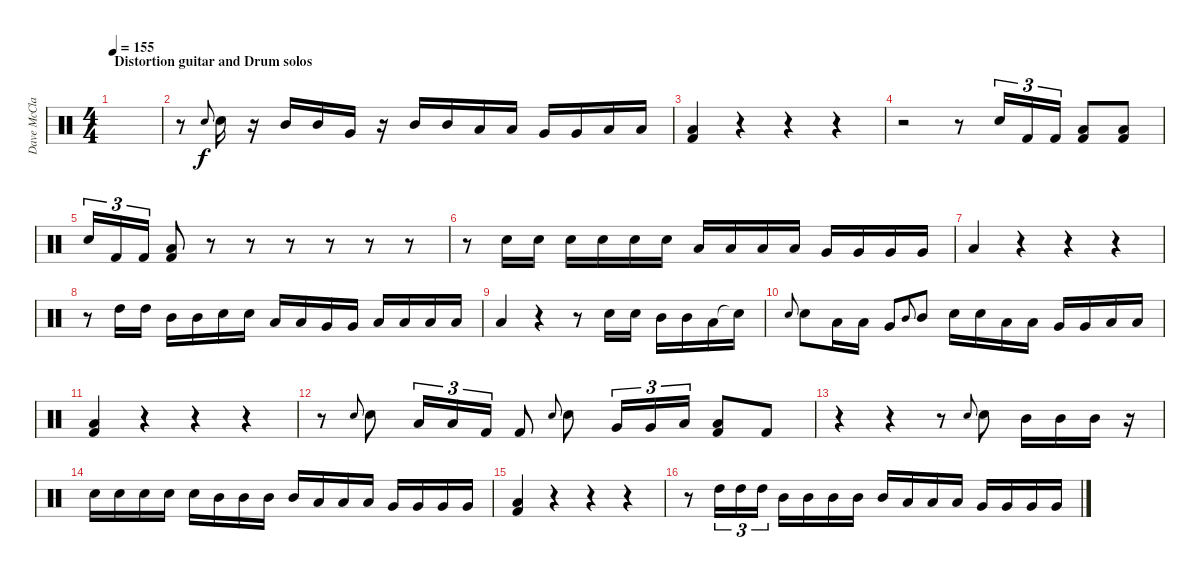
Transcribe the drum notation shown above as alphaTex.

\track ("Dave McClain (Drums)" "Dave McCla") {instrument percussion}
\staff {score}
\articulation defaults
\ts (4 4)
\section ("" "Distortion guitar and Drum solos")
\tempo 155
\clef neutral
\ks c
|
r.8 "Electric Snare (hit)".8{gr onbeat} "Electric Snare (hit)".16 r.16 "Mid Tom (hit)".16 "Mid Tom (hit)".16 "Very Low Tom (hit)".16 r.16 "Mid Tom (hit)".16 "Mid Tom (hit)".16 "Low Tom (hit)".16 "Low Tom (hit)".16 "Very Low Tom (hit)".16 "Very Low Tom (hit)".16 "Low Floor Tom (hit)".16 "Low Floor Tom (hit)".16 |
("Low Floor Tom (hit)" "Kick (hit) 2").4 r.4 r.4 r.4 |
r.2 r.8 "Electric Snare (hit)".16{tu (3 2)} "Kick (hit) 2".16{tu (3 2)} "Kick (hit) 2".16{tu (3 2)} ("Low Floor Tom (hit)" "Kick (hit) 2").8 ("Low Floor Tom (hit)" "Kick (hit) 2").8 |
"Electric Snare (hit)".16{tu (3 2)} "Kick (hit) 2".16{tu (3 2)} "Kick (hit) 2".16{tu (3 2)} ("Low Floor Tom (hit)" "Kick (hit) 2").8 r.8 r.8 r.8 r.8 r.8 r.8 |
r.8 "Electric Snare (hit)".16 "Electric Snare (hit)".16 "Electric Snare (hit)".16 "Electric Snare (hit)".16 "Electric Snare (hit)".16 "Electric Snare (hit)".16 "Low Tom (hit)".16 "Low Tom (hit)".16 "Low Tom (hit)".16 "Low Tom (hit)".16 "Very Low Tom (hit)".16 "Very Low Tom (hit)".16 "Very Low Tom (hit)".16 "Very Low Tom (hit)".16 |
"Low Floor Tom (hit)".4 r.4 r.4 r.4 |
r.8 "High Tom (hit)".16 "High Tom (hit)".16 "Mid Tom (hit)".16 "Mid Tom (hit)".16 "Electric Snare (hit)".16 "Electric Snare (hit)".16 "Low Tom (hit)".16 "Low Tom (hit)".16 "Very Low Tom (hit)".16 "Very Low Tom (hit)".16 "Low Floor Tom (hit)".16 "Low Floor Tom (hit)".16 "Low Floor Tom (hit)".16 "Low Floor Tom (hit)".16 |
"Low Floor Tom (hit)".4 r.4 r.8 "Electric Snare (hit)".16 "Electric Snare (hit)".16 "Mid Tom (hit)".16 "Mid Tom (hit)".16 "Low Tom (hit)".16 "Snare (hit)"{t}.16 |
"Electric Snare (hit)".8{gr onbeat} "Electric Snare (hit)".8 "Low Tom (hit)".16 "Low Tom (hit)".16 "Very Low Tom (hit)".8 "Mid Tom (hit)".8{gr onbeat} "Mid Tom (hit)".8 "Electric Snare (hit)".16 "Electric Snare (hit)".16 "Low Tom (hit)".16 "Low Tom (hit)".16 "Very Low Tom (hit)".16 "Very Low Tom (hit)".16 "Low Floor Tom (hit)".16 "Low Floor Tom (hit)".16 |
("Low Floor Tom (hit)" "Kick (hit) 2").4 r.4 r.4 r.4 |
r.8 "Electric Snare (hit)".8{gr onbeat} "Electric Snare (hit)".8 "Low Floor Tom (hit)".16{tu (3 2)} "Low Floor Tom (hit)".16{tu (3 2)} "Kick (hit) 2".16{tu (3 2)} "Kick (hit) 2".8 "Electric Snare (hit)".8{gr onbeat} "Electric Snare (hit)".8 "Very Low Tom (hit)".16{tu (3 2)} "Very Low Tom (hit)".16{tu (3 2)} "Low Floor Tom (hit)".16{tu (3 2)} ("Low Floor Tom (hit)" "Kick (hit) 2").8 "Kick (hit) 2".8 |
r.4 r.4 r.8 "Electric Snare (hit)".8{gr onbeat} "Electric Snare (hit)".8 "Mid Tom (hit)".16 "Mid Tom (hit)".16 "Mid Tom (hit)".16 r.16 |
"Electric Snare (hit)".16 "Electric Snare (hit)".16 "Electric Snare (hit)".16 "Electric Snare (hit)".16 "Electric Snare (hit)".16 "Mid Tom (hit)".16 "Mid Tom (hit)".16 "Mid Tom (hit)".16 "Mid Tom (hit)".16 "Low Tom (hit)".16 "Low Tom (hit)".16 "Low Tom (hit)".16 "Very Low Tom (hit)".16 "Very Low Tom (hit)".16 "Very Low Tom (hit)".16 "Very Low Tom (hit)".16 |
("Low Floor Tom (hit)" "Kick (hit) 2").4 r.4 r.4 r.4 |
r.8 "High Tom (hit)".16{tu (3 2)} "High Tom (hit)".16{tu (3 2)} "High Tom (hit)".16{tu (3 2)} "Mid Tom (hit)".16 "Mid Tom (hit)".16 "Mid Tom (hit)".16 "Mid Tom (hit)".16 "Mid Tom (hit)".16 "Low Tom (hit)".16 "Low Tom (hit)".16 "Low Tom (hit)".16 "Very Low Tom (hit)".16 "Very Low Tom (hit)".16 "Very Low Tom (hit)".16 "Very Low Tom (hit)".16
